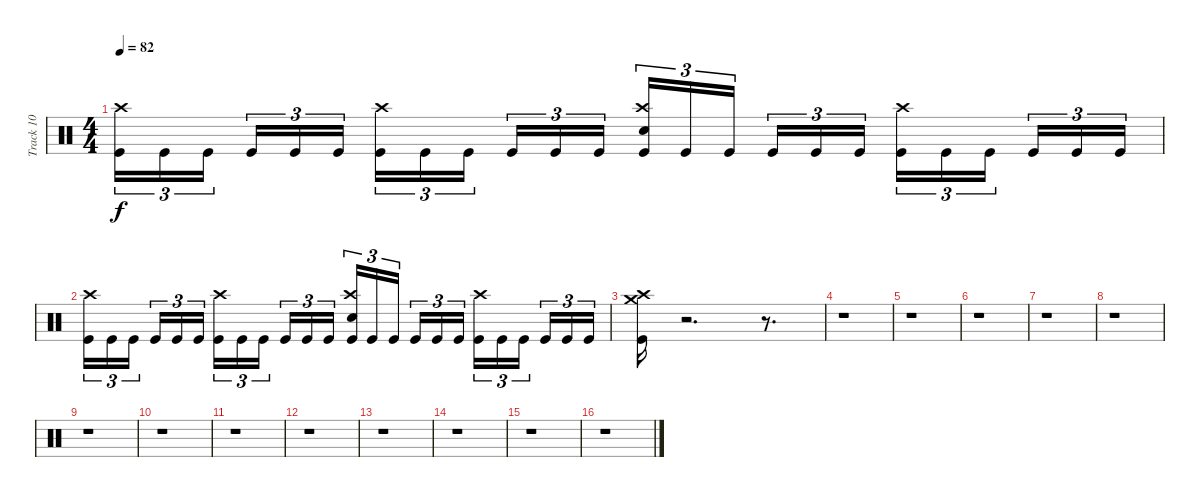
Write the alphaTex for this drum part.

\track ("Track 10" "Track 10") {instrument percussion}
\staff {score}
\articulation defaults
\ts (4 4)
\tempo 82
\clef neutral
\ks c
("Kick (hit)" "Crash high (hit)").16{tu (3 2) dy f} "Kick (hit)".16{tu (3 2)} "Kick (hit)".16{tu (3 2)} "Kick (hit)".16{tu (3 2)} "Kick (hit)".16{tu (3 2)} "Kick (hit)".16{tu (3 2)} ("Kick (hit)" "Crash high (hit)").16{tu (3 2)} "Kick (hit)".16{tu (3 2)} "Kick (hit)".16{tu (3 2)} "Kick (hit)".16{tu (3 2)} "Kick (hit)".16{tu (3 2)} "Kick (hit)".16{tu (3 2)} ("Kick (hit)" "Snare (hit) 2" "Crash high (hit)").16{tu (3 2)} "Kick (hit)".16{tu (3 2)} "Kick (hit)".16{tu (3 2)} "Kick (hit)".16{tu (3 2)} "Kick (hit)".16{tu (3 2)} "Kick (hit)".16{tu (3 2)} ("Kick (hit)" "Crash high (hit)").16{tu (3 2)} "Kick (hit)".16{tu (3 2)} "Kick (hit)".16{tu (3 2)} "Kick (hit)".16{tu (3 2)} "Kick (hit)".16{tu (3 2)} "Kick (hit)".16{tu (3 2)} |
("Kick (hit)" "Crash high (hit)").16{tu (3 2)} "Kick (hit)".16{tu (3 2)} "Kick (hit)".16{tu (3 2)} "Kick (hit)".16{tu (3 2)} "Kick (hit)".16{tu (3 2)} "Kick (hit)".16{tu (3 2)} ("Kick (hit)" "Crash high (hit)").16{tu (3 2)} "Kick (hit)".16{tu (3 2)} "Kick (hit)".16{tu (3 2)} "Kick (hit)".16{tu (3 2)} "Kick (hit)".16{tu (3 2)} "Kick (hit)".16{tu (3 2)} ("Kick (hit)" "Snare (hit) 2" "Crash high (hit)").16{tu (3 2)} "Kick (hit)".16{tu (3 2)} "Kick (hit)".16{tu (3 2)} "Kick (hit)".16{tu (3 2)} "Kick (hit)".16{tu (3 2)} "Kick (hit)".16{tu (3 2)} ("Kick (hit)" "Crash high (hit)").16{tu (3 2)} "Kick (hit)".16{tu (3 2)} "Kick (hit)".16{tu (3 2)} "Kick (hit)".16{tu (3 2)} "Kick (hit)".16{tu (3 2)} "Kick (hit)".16{tu (3 2)} |
("Kick (hit)" "Crash high (hit)" "Crash medium (hit)").16 r.2{d} r.8{d} |
r.1 |
r.1 |
r.1 |
r.1 |
r.1 |
r.1 |
r.1 |
r.1 |
r.1 |
r.1 |
r.1 |
r.1 |
r.1
